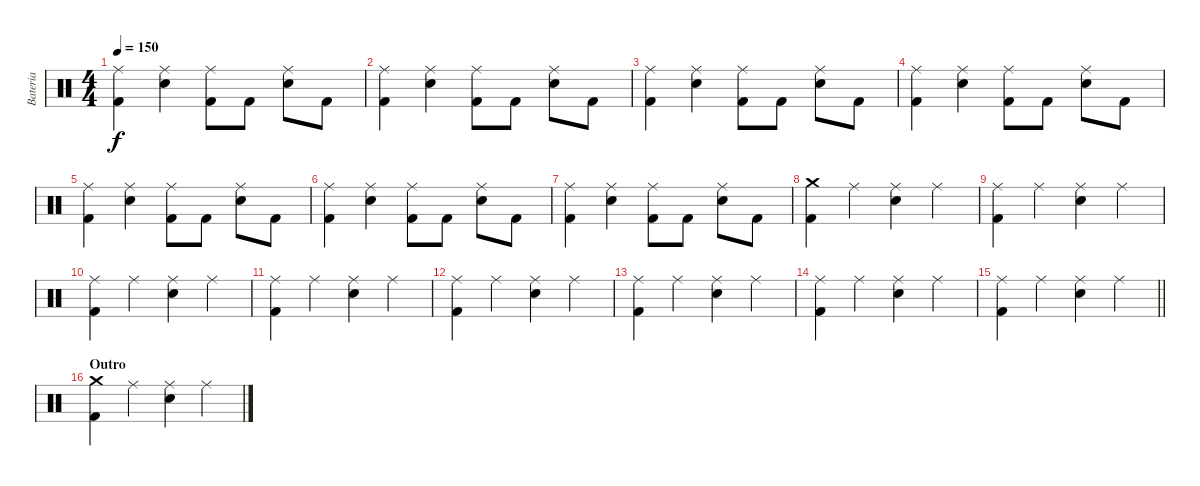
\track ("Bateria" "Bateria") {instrument percussion}
\staff {score}
\articulation defaults
\ts (4 4)
\tempo 150
\clef neutral
\ks c
("Ride (middle)" "Kick (hit) 2").4{dy f} ("Ride (middle)" "Snare (hit) 2").4 ("Ride (middle)" "Kick (hit) 2").8 "Kick (hit) 2".8 ("Ride (middle)" "Snare (hit) 2").8 "Kick (hit) 2".8 |
("Ride (middle)" "Kick (hit) 2").4 ("Ride (middle)" "Snare (hit) 2").4 ("Ride (middle)" "Kick (hit) 2").8 "Kick (hit) 2".8 ("Ride (middle)" "Snare (hit) 2").8 "Kick (hit) 2".8 |
("Ride (middle)" "Kick (hit) 2").4 ("Ride (middle)" "Snare (hit) 2").4 ("Ride (middle)" "Kick (hit) 2").8 "Kick (hit) 2".8 ("Ride (middle)" "Snare (hit) 2").8 "Kick (hit) 2".8 |
("Ride (middle)" "Kick (hit) 2").4 ("Ride (middle)" "Snare (hit) 2").4 ("Ride (middle)" "Kick (hit) 2").8 "Kick (hit) 2".8 ("Ride (middle)" "Snare (hit) 2").8 "Kick (hit) 2".8 |
("Ride (middle)" "Kick (hit) 2").4 ("Ride (middle)" "Snare (hit) 2").4 ("Ride (middle)" "Kick (hit) 2").8 "Kick (hit) 2".8 ("Ride (middle)" "Snare (hit) 2").8 "Kick (hit) 2".8 |
("Ride (middle)" "Kick (hit) 2").4 ("Ride (middle)" "Snare (hit) 2").4 ("Ride (middle)" "Kick (hit) 2").8 "Kick (hit) 2".8 ("Ride (middle)" "Snare (hit) 2").8 "Kick (hit) 2".8 |
("Ride (middle)" "Kick (hit) 2").4 ("Ride (middle)" "Snare (hit) 2").4 ("Ride (middle)" "Kick (hit) 2").8 "Kick (hit) 2".8 ("Ride (middle)" "Snare (hit) 2").8 "Kick (hit) 2".8 |
("Crash medium (hit)" "Kick (hit) 2").4 "Ride (middle)".4 ("Ride (middle)" "Snare (hit) 2").4 "Ride (middle)".4 |
("Ride (middle)" "Kick (hit) 2").4 "Ride (middle)".4 ("Ride (middle)" "Snare (hit) 2").4 "Ride (middle)".4 |
("Ride (middle)" "Kick (hit) 2").4 "Ride (middle)".4 ("Ride (middle)" "Snare (hit) 2").4 "Ride (middle)".4 |
("Ride (middle)" "Kick (hit) 2").4 "Ride (middle)".4 ("Ride (middle)" "Snare (hit) 2").4 "Ride (middle)".4 |
("Ride (middle)" "Kick (hit) 2").4 "Ride (middle)".4 ("Ride (middle)" "Snare (hit) 2").4 "Ride (middle)".4 |
("Ride (middle)" "Kick (hit) 2").4 "Ride (middle)".4 ("Ride (middle)" "Snare (hit) 2").4 "Ride (middle)".4 |
("Ride (middle)" "Kick (hit) 2").4 "Ride (middle)".4 ("Ride (middle)" "Snare (hit) 2").4 "Ride (middle)".4 |
\barLineRight lightlight
("Ride (middle)" "Kick (hit) 2").4 "Ride (middle)".4 ("Ride (middle)" "Snare (hit) 2").4 "Ride (middle)".4 |
\section ("" "Outro")
("Crash medium (hit)" "Kick (hit) 2").4 "Ride (middle)".4 ("Ride (middle)" "Snare (hit) 2").4 "Ride (middle)".4
